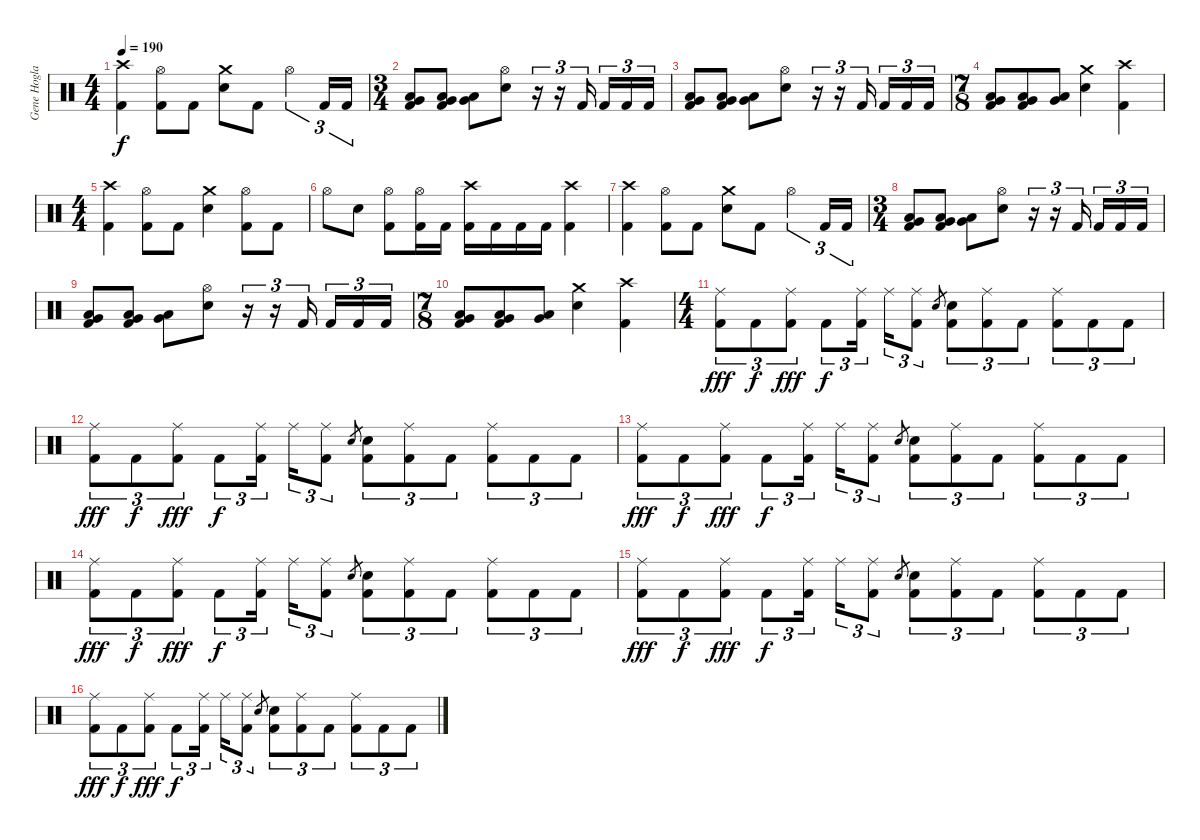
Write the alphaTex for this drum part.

\track ("Gene Hoglan" "Gene Hogla") {instrument percussion}
\staff {score}
\articulation defaults
\ts (4 4)
\tempo 190
\clef neutral
\ks c
("Crash high (hit)" "Kick (hit) 2").4{dy f} ("Hi-Hat (open)" "Kick (hit) 2").8 "Kick (hit) 2".8 ("Crash medium (hit)" "Electric Snare (hit)").8 "Kick (hit) 2".8 "Hi-Hat (open)".4{tu (3 2)} "Kick (hit) 2".16{tu (3 2)} "Kick (hit) 2".16{tu (3 2)} |
\ts (3 4)
("Low Tom (hit)" "Very Low Tom (hit)" "Kick (hit) 2").8 ("Low Tom (hit)" "Very Low Tom (hit)" "Kick (hit) 2").8 ("Very Low Tom (hit)" "Low Floor Tom (hit)").8 ("Hi-Hat (open)" "Electric Snare (hit)").8 r.16{tu (3 2)} r.16{tu (3 2)} "Kick (hit) 2".16{tu (3 2)} "Kick (hit) 2".16{tu (3 2)} "Kick (hit) 2".16{tu (3 2)} "Kick (hit) 2".16{tu (3 2)} |
("Low Tom (hit)" "Very Low Tom (hit)" "Kick (hit) 2").8 ("Low Tom (hit)" "Very Low Tom (hit)" "Kick (hit) 2").8 ("Very Low Tom (hit)" "Low Floor Tom (hit)").8 ("Hi-Hat (open)" "Electric Snare (hit)").8 r.16{tu (3 2)} r.16{tu (3 2)} "Kick (hit) 2".16{tu (3 2)} "Kick (hit) 2".16{tu (3 2)} "Kick (hit) 2".16{tu (3 2)} "Kick (hit) 2".16{tu (3 2)} |
\ts (7 8)
("Low Tom (hit)" "Very Low Tom (hit)" "Kick (hit) 2").8 ("Low Tom (hit)" "Very Low Tom (hit)" "Kick (hit) 2").8 ("Very Low Tom (hit)" "Low Floor Tom (hit)").8 ("Crash medium (hit)" "Electric Snare (hit)").4 ("Crash high (hit)" "Kick (hit) 2").4 |
\ts (4 4)
("Crash high (hit)" "Kick (hit) 2").4 ("Hi-Hat (open)" "Kick (hit) 2").8 "Kick (hit) 2".8 ("Crash medium (hit)" "Electric Snare (hit)").4 ("Hi-Hat (open)" "Kick (hit) 2").8 "Kick (hit) 2".8 |
"Hi-Hat (open)".8 "Electric Snare (hit)".8 ("Hi-Hat (open)" "Kick (hit) 2").8 ("Hi-Hat (open)" "Kick (hit) 2").16 "Kick (hit) 2".16 ("Crash high (hit)" "Kick (hit) 2").16 "Kick (hit) 2".16 "Kick (hit) 2".16 "Kick (hit) 2".16 ("Crash high (hit)" "Kick (hit) 2").4 |
("Crash high (hit)" "Kick (hit) 2").4 ("Hi-Hat (open)" "Kick (hit) 2").8 "Kick (hit) 2".8 ("Crash medium (hit)" "Electric Snare (hit)").8 "Kick (hit) 2".8 "Hi-Hat (open)".4{tu (3 2)} "Kick (hit) 2".16{tu (3 2)} "Kick (hit) 2".16{tu (3 2)} |
\ts (3 4)
("Low Tom (hit)" "Very Low Tom (hit)" "Kick (hit) 2").8 ("Low Tom (hit)" "Very Low Tom (hit)" "Kick (hit) 2").8 ("Very Low Tom (hit)" "Low Floor Tom (hit)").8 ("Hi-Hat (open)" "Electric Snare (hit)").8 r.16{tu (3 2)} r.16{tu (3 2)} "Kick (hit) 2".16{tu (3 2)} "Kick (hit) 2".16{tu (3 2)} "Kick (hit) 2".16{tu (3 2)} "Kick (hit) 2".16{tu (3 2)} |
("Low Tom (hit)" "Very Low Tom (hit)" "Kick (hit) 2").8 ("Low Tom (hit)" "Very Low Tom (hit)" "Kick (hit) 2").8 ("Very Low Tom (hit)" "Low Floor Tom (hit)").8 ("Hi-Hat (open)" "Electric Snare (hit)").8 r.16{tu (3 2)} r.16{tu (3 2)} "Kick (hit) 2".16{tu (3 2)} "Kick (hit) 2".16{tu (3 2)} "Kick (hit) 2".16{tu (3 2)} "Kick (hit) 2".16{tu (3 2)} |
\ts (7 8)
("Low Tom (hit)" "Very Low Tom (hit)" "Kick (hit) 2").8 ("Low Tom (hit)" "Very Low Tom (hit)" "Kick (hit) 2").8 ("Very Low Tom (hit)" "Low Floor Tom (hit)").8 ("Crash medium (hit)" "Electric Snare (hit)").4 ("Crash high (hit)" "Kick (hit) 2").4 |
\ts (4 4)
("Ride (middle)" "Kick (hit) 2").8{tu (3 2) dy fff} "Kick (hit) 2".8{tu (3 2) dy f} ("Ride (middle)" "Kick (hit) 2").8{tu (3 2) dy fff} "Kick (hit) 2".8{tu (3 2) dy f} ("Ride (middle)" "Kick (hit) 2").16{tu (3 2)} "Ride (middle)".16{tu (3 2)} ("Ride (middle)" "Kick (hit) 2").8{tu (3 2)} "Electric Snare (hit)".8{gr} ("Electric Snare (hit)" "Kick (hit) 2").8{tu (3 2)} ("Ride (middle)" "Kick (hit) 2").8{tu (3 2)} "Kick (hit) 2".8{tu (3 2)} ("Ride (middle)" "Kick (hit) 2").8{tu (3 2)} "Kick (hit) 2".8{tu (3 2)} "Kick (hit) 2".8{tu (3 2)} |
("Ride (middle)" "Kick (hit) 2").8{tu (3 2) dy fff} "Kick (hit) 2".8{tu (3 2) dy f} ("Ride (middle)" "Kick (hit) 2").8{tu (3 2) dy fff} "Kick (hit) 2".8{tu (3 2) dy f} ("Ride (middle)" "Kick (hit) 2").16{tu (3 2)} "Ride (middle)".16{tu (3 2)} ("Ride (middle)" "Kick (hit) 2").8{tu (3 2)} "Electric Snare (hit)".8{gr} ("Electric Snare (hit)" "Kick (hit) 2").8{tu (3 2)} ("Ride (middle)" "Kick (hit) 2").8{tu (3 2)} "Kick (hit) 2".8{tu (3 2)} ("Ride (middle)" "Kick (hit) 2").8{tu (3 2)} "Kick (hit) 2".8{tu (3 2)} "Kick (hit) 2".8{tu (3 2)} |
("Ride (middle)" "Kick (hit) 2").8{tu (3 2) dy fff} "Kick (hit) 2".8{tu (3 2) dy f} ("Ride (middle)" "Kick (hit) 2").8{tu (3 2) dy fff} "Kick (hit) 2".8{tu (3 2) dy f} ("Ride (middle)" "Kick (hit) 2").16{tu (3 2)} "Ride (middle)".16{tu (3 2)} ("Ride (middle)" "Kick (hit) 2").8{tu (3 2)} "Electric Snare (hit)".8{gr} ("Electric Snare (hit)" "Kick (hit) 2").8{tu (3 2)} ("Ride (middle)" "Kick (hit) 2").8{tu (3 2)} "Kick (hit) 2".8{tu (3 2)} ("Ride (middle)" "Kick (hit) 2").8{tu (3 2)} "Kick (hit) 2".8{tu (3 2)} "Kick (hit) 2".8{tu (3 2)} |
("Ride (middle)" "Kick (hit) 2").8{tu (3 2) dy fff} "Kick (hit) 2".8{tu (3 2) dy f} ("Ride (middle)" "Kick (hit) 2").8{tu (3 2) dy fff} "Kick (hit) 2".8{tu (3 2) dy f} ("Ride (middle)" "Kick (hit) 2").16{tu (3 2)} "Ride (middle)".16{tu (3 2)} ("Ride (middle)" "Kick (hit) 2").8{tu (3 2)} "Electric Snare (hit)".8{gr} ("Electric Snare (hit)" "Kick (hit) 2").8{tu (3 2)} ("Ride (middle)" "Kick (hit) 2").8{tu (3 2)} "Kick (hit) 2".8{tu (3 2)} ("Ride (middle)" "Kick (hit) 2").8{tu (3 2)} "Kick (hit) 2".8{tu (3 2)} "Kick (hit) 2".8{tu (3 2)} |
("Ride (middle)" "Kick (hit) 2").8{tu (3 2) dy fff} "Kick (hit) 2".8{tu (3 2) dy f} ("Ride (middle)" "Kick (hit) 2").8{tu (3 2) dy fff} "Kick (hit) 2".8{tu (3 2) dy f} ("Ride (middle)" "Kick (hit) 2").16{tu (3 2)} "Ride (middle)".16{tu (3 2)} ("Ride (middle)" "Kick (hit) 2").8{tu (3 2)} "Electric Snare (hit)".8{gr} ("Electric Snare (hit)" "Kick (hit) 2").8{tu (3 2)} ("Ride (middle)" "Kick (hit) 2").8{tu (3 2)} "Kick (hit) 2".8{tu (3 2)} ("Ride (middle)" "Kick (hit) 2").8{tu (3 2)} "Kick (hit) 2".8{tu (3 2)} "Kick (hit) 2".8{tu (3 2)} |
("Ride (middle)" "Kick (hit) 2").8{tu (3 2) dy fff} "Kick (hit) 2".8{tu (3 2) dy f} ("Ride (middle)" "Kick (hit) 2").8{tu (3 2) dy fff} "Kick (hit) 2".8{tu (3 2) dy f} ("Ride (middle)" "Kick (hit) 2").16{tu (3 2)} "Ride (middle)".16{tu (3 2)} ("Ride (middle)" "Kick (hit) 2").8{tu (3 2)} "Electric Snare (hit)".8{gr} ("Electric Snare (hit)" "Kick (hit) 2").8{tu (3 2)} ("Ride (middle)" "Kick (hit) 2").8{tu (3 2)} "Kick (hit) 2".8{tu (3 2)} ("Ride (middle)" "Kick (hit) 2").8{tu (3 2)} "Kick (hit) 2".8{tu (3 2)} "Kick (hit) 2".8{tu (3 2)}
